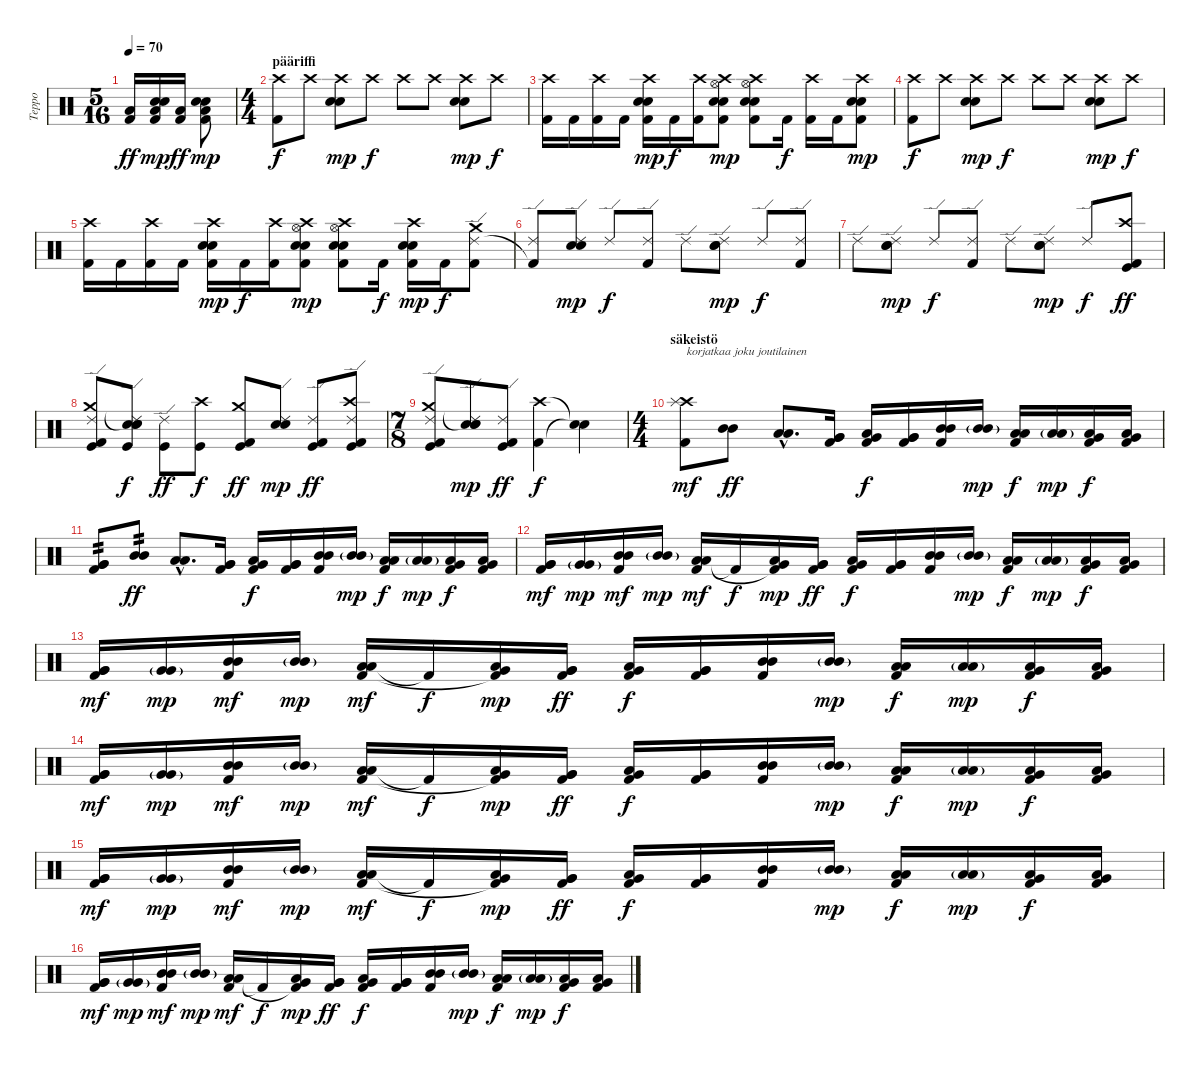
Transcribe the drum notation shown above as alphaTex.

\track ("Teppo" "Teppo") {instrument percussion}
\staff {score}
\articulation defaults
\ts (5 16)
\tempo 70
\clef neutral
\ks c
("Low Floor Tom (hit)" "Kick (hit) 2").16{dy ff} ("Low Floor Tom (hit)" "Snare (hit) 2" "Electric Snare (hit)" "Kick (hit) 2").16{dy mp} ("Low Floor Tom (hit)" "Kick (hit) 2").16{dy ff} ("Low Floor Tom (hit)" "Snare (hit) 2" "Electric Snare (hit)" "Kick (hit) 2").8{dy mp} |
\ts (4 4)
\section ("" "pääriffi")
("Crash high (hit)" "Kick (hit) 2").8{dy f} "Crash high (hit)".8 ("Crash high (hit)" "Snare (hit) 2" "Electric Snare (hit)").8{dy mp} "Crash high (hit)".8{dy f} "Crash high (hit)".8 "Crash high (hit)".8 ("Crash high (hit)" "Snare (hit) 2" "Electric Snare (hit)").8{dy mp} "Crash high (hit)".8{dy f} |
("Crash high (hit)" "Kick (hit) 2").16 "Kick (hit) 2".16 ("Crash high (hit)" "Kick (hit) 2").16 "Kick (hit) 2".16 ("Crash high (hit)" "Snare (hit) 2" "Electric Snare (hit)" "Kick (hit) 2").16{dy mp} "Kick (hit) 2".16{dy f} ("Crash high (hit)" "Kick (hit) 2").16 ("Hi-Hat (open)" "Crash high (hit)" "Snare (hit) 2" "Electric Snare (hit)" "Kick (hit) 2").8{dy mp} ("Hi-Hat (open)" "Crash high (hit)" "Snare (hit) 2" "Electric Snare (hit)" "Kick (hit) 2").8 "Kick (hit) 2".16{dy f} ("Crash high (hit)" "Kick (hit) 2").16 "Kick (hit) 2".16 ("Crash high (hit)" "Snare (hit) 2" "Electric Snare (hit)" "Kick (hit) 2").8{dy mp} |
("Crash high (hit)" "Kick (hit) 2").8{dy f} "Crash high (hit)".8 ("Crash high (hit)" "Snare (hit) 2" "Electric Snare (hit)").8{dy mp} "Crash high (hit)".8{dy f} "Crash high (hit)".8 "Crash high (hit)".8 ("Crash high (hit)" "Snare (hit) 2" "Electric Snare (hit)").8{dy mp} "Crash high (hit)".8{dy f} |
("Crash high (hit)" "Kick (hit) 2").16 "Kick (hit) 2".16 ("Crash high (hit)" "Kick (hit) 2").16 "Kick (hit) 2".16 ("Crash high (hit)" "Snare (hit) 2" "Electric Snare (hit)" "Kick (hit) 2").16{dy mp} "Kick (hit) 2".16{dy f} ("Crash high (hit)" "Kick (hit) 2").16 ("Hi-Hat (open)" "Crash high (hit)" "Snare (hit) 2" "Electric Snare (hit)" "Kick (hit) 2").8{dy mp} ("Hi-Hat (open)" "Crash high (hit)" "Snare (hit) 2" "Electric Snare (hit)" "Kick (hit) 2").8 "Kick (hit) 2".16{dy f} ("Crash high (hit)" "Snare (hit) 2" "Electric Snare (hit)" "Kick (hit) 2").16{dy mp} "Kick (hit) 2".16{dy f} ("Crash medium (hit)" "Ride (edge) 2" "Kick (hit) 2").8 |
("Ride (edge) 2" "Kick (hit) 2"{t}).8 ("Ride (edge) 2" "Snare (hit) 2" "Electric Snare (hit)").8{dy mp} "Ride (edge) 2".8{dy f} ("Ride (edge) 2" "Kick (hit) 2").8 "Ride (edge) 2".8 ("Ride (edge) 2" "Snare (hit) 2" "Electric Snare (hit)").8{dy mp} "Ride (edge) 2".8{dy f} ("Ride (edge) 2" "Kick (hit) 2").8 |
"Ride (edge) 2".8 ("Ride (edge) 2" "Snare (hit) 2" "Electric Snare (hit)").8{dy mp} "Ride (edge) 2".8{dy f} ("Ride (edge) 2" "Kick (hit) 2").8 "Ride (edge) 2".8 ("Ride (edge) 2" "Snare (hit) 2" "Electric Snare (hit)").8{dy mp} "Ride (edge) 2".8{dy f} ("Crash high (hit)" "Kick (hit) 2" "Kick (hit)").8{dy ff} |
("Ride (edge) 2" "Crash medium (hit)" "Kick (hit) 2" "Kick (hit)").8 ("Ride (edge) 2" "Snare (hit)"{t} "Snare (hit) 2" "Electric Snare (hit)" "Kick (hit)").8{dy f} ("Ride (edge) 2" "Kick (hit)").8{dy ff} ("Crash high (hit)" "Kick (hit)").8{dy f} ("Crash medium (hit)" "Kick (hit) 2" "Kick (hit)").8{dy ff} ("Ride (edge) 2" "Snare (hit) 2" "Electric Snare (hit)").8{dy mp} ("Ride (edge) 2" "Kick (hit) 2" "Kick (hit)").8{dy ff} ("Crash high (hit)" "Ride (edge) 2" "Kick (hit) 2" "Kick (hit)").8 |
\ts (7 8)
("Ride (edge) 2" "Crash medium (hit)" "Kick (hit) 2" "Kick (hit)").8 ("Ride (edge) 2" "Snare (hit)"{t} "Snare (hit) 2" "Electric Snare (hit)").8{dy mp} ("Ride (edge) 2" "Kick (hit) 2" "Kick (hit)").8{dy ff} ("Crash high (hit)" "Kick (hit) 2").4{dy f} ("Snare (hit)"{t} "Snare (hit)"{t}).4 |
\ts (4 4)
\section ("" "säkeistö")
("Crash high (hit)" "Splash (hit)" "Kick (hit) 2").8{txt "korjatkaa joku joutilainen" dy mf} ("Mid Tom (hit)" "Mid Tom (hit)").8{dy ff} ("Low Tom (hit)"{hac} "Low Tom (hit)"{hac}).8{d} ("Very Low Tom (hit)" "Very Low Tom (hit)" "Kick (hit) 2").16 ("Low Tom (hit)" "Very Low Tom (hit)" "Kick (hit) 2").16{dy f} ("Very Low Tom (hit)" "Very Low Tom (hit)" "Kick (hit) 2").16 ("Mid Tom (hit)" "Mid Tom (hit)" "Kick (hit) 2").16 ("Mid Tom (hit)"{g} "Mid Tom (hit)"{g}).16{dy mp} ("Low Tom (hit)" "Low Tom (hit)" "Kick (hit) 2").16{dy f} ("Low Tom (hit)"{g} "Low Tom (hit)"{g}).16{dy mp} ("Very Low Tom (hit)" "Low Tom (hit)" "Kick (hit) 2").16{dy f} ("Low Floor Tom (hit)" "Very Low Tom (hit)" "Kick (hit) 2").16 |
("Very Low Tom (hit)" "Very Low Tom (hit)" "Kick (hit) 2").8{tp 2} ("Mid Tom (hit)" "Mid Tom (hit)").8{tp 2 dy ff} ("Low Tom (hit)"{hac} "Low Tom (hit)"{hac}).8{d} ("Very Low Tom (hit)" "Very Low Tom (hit)" "Kick (hit) 2").16 ("Low Tom (hit)" "Very Low Tom (hit)" "Kick (hit) 2").16{dy f} ("Very Low Tom (hit)" "Very Low Tom (hit)" "Kick (hit) 2").16 ("Mid Tom (hit)" "Mid Tom (hit)" "Kick (hit) 2").16 ("Mid Tom (hit)"{g} "Mid Tom (hit)"{g}).16{dy mp} ("Low Tom (hit)" "Low Tom (hit)" "Kick (hit) 2").16{dy f} ("Low Tom (hit)"{g} "Low Tom (hit)"{g}).16{dy mp} ("Very Low Tom (hit)" "Low Tom (hit)" "Kick (hit) 2").16{dy f} ("Low Floor Tom (hit)" "Very Low Tom (hit)" "Kick (hit) 2").16 |
("Very Low Tom (hit)" "Very Low Tom (hit)" "Kick (hit) 2").16{dy mf} ("Very Low Tom (hit)"{g} "Very Low Tom (hit)"{g}).16{dy mp} ("Mid Tom (hit)" "Mid Tom (hit)" "Kick (hit) 2").16{dy mf} ("Mid Tom (hit)"{g} "Mid Tom (hit)"{g}).16{dy mp} ("Low Tom (hit)" "Low Tom (hit)" "Kick (hit) 2").16{dy mf} "Kick (hit) 2"{t}.16{dy f} ("Very Low Tom (hit)" "Low Tom (hit)" "Kick (hit) 2"{t}).16{dy mp} ("Very Low Tom (hit)" "Very Low Tom (hit)" "Kick (hit) 2").16{dy ff} ("Low Tom (hit)" "Very Low Tom (hit)" "Kick (hit) 2").16{dy f} ("Very Low Tom (hit)" "Very Low Tom (hit)" "Kick (hit) 2").16 ("Mid Tom (hit)" "Mid Tom (hit)" "Kick (hit) 2").16 ("Mid Tom (hit)"{g} "Mid Tom (hit)"{g}).16{dy mp} ("Low Tom (hit)" "Low Tom (hit)" "Kick (hit) 2").16{dy f} ("Low Tom (hit)"{g} "Low Tom (hit)"{g}).16{dy mp} ("Very Low Tom (hit)" "Low Tom (hit)" "Kick (hit) 2").16{dy f} ("Low Floor Tom (hit)" "Very Low Tom (hit)" "Kick (hit) 2").16 |
("Very Low Tom (hit)" "Very Low Tom (hit)" "Kick (hit) 2").16{dy mf} ("Very Low Tom (hit)"{g} "Very Low Tom (hit)"{g}).16{txt " " dy mp} ("Mid Tom (hit)" "Mid Tom (hit)" "Kick (hit) 2").16{dy mf} ("Mid Tom (hit)"{g} "Mid Tom (hit)"{g}).16{dy mp} ("Low Tom (hit)" "Low Tom (hit)" "Kick (hit) 2").16{dy mf} "Kick (hit) 2"{t}.16{dy f} ("Very Low Tom (hit)" "Low Tom (hit)" "Kick (hit) 2"{t}).16{dy mp} ("Very Low Tom (hit)" "Very Low Tom (hit)" "Kick (hit) 2").16{dy ff} ("Low Tom (hit)" "Very Low Tom (hit)" "Kick (hit) 2").16{dy f} ("Very Low Tom (hit)" "Very Low Tom (hit)" "Kick (hit) 2").16 ("Mid Tom (hit)" "Mid Tom (hit)" "Kick (hit) 2").16 ("Mid Tom (hit)"{g} "Mid Tom (hit)"{g}).16{dy mp} ("Low Tom (hit)" "Low Tom (hit)" "Kick (hit) 2").16{dy f} ("Low Tom (hit)"{g} "Low Tom (hit)"{g}).16{dy mp} ("Very Low Tom (hit)" "Low Tom (hit)" "Kick (hit) 2").16{dy f} ("Low Floor Tom (hit)" "Very Low Tom (hit)" "Kick (hit) 2").16 |
("Very Low Tom (hit)" "Very Low Tom (hit)" "Kick (hit) 2").16{dy mf} ("Very Low Tom (hit)"{g} "Very Low Tom (hit)"{g}).16{dy mp} ("Mid Tom (hit)" "Mid Tom (hit)" "Kick (hit) 2").16{dy mf} ("Mid Tom (hit)"{g} "Mid Tom (hit)"{g}).16{dy mp} ("Low Tom (hit)" "Low Tom (hit)" "Kick (hit) 2").16{dy mf} "Kick (hit) 2"{t}.16{dy f} ("Very Low Tom (hit)" "Low Tom (hit)" "Kick (hit) 2"{t}).16{dy mp} ("Very Low Tom (hit)" "Very Low Tom (hit)" "Kick (hit) 2").16{dy ff} ("Low Tom (hit)" "Very Low Tom (hit)" "Kick (hit) 2").16{dy f} ("Very Low Tom (hit)" "Very Low Tom (hit)" "Kick (hit) 2").16 ("Mid Tom (hit)" "Mid Tom (hit)" "Kick (hit) 2").16 ("Mid Tom (hit)"{g} "Mid Tom (hit)"{g}).16{dy mp} ("Low Tom (hit)" "Low Tom (hit)" "Kick (hit) 2").16{dy f} ("Low Tom (hit)"{g} "Low Tom (hit)"{g}).16{dy mp} ("Very Low Tom (hit)" "Low Tom (hit)" "Kick (hit) 2").16{dy f} ("Low Floor Tom (hit)" "Very Low Tom (hit)" "Kick (hit) 2").16 |
("Very Low Tom (hit)" "Very Low Tom (hit)" "Kick (hit) 2").16{dy mf} ("Very Low Tom (hit)"{g} "Very Low Tom (hit)"{g}).16{dy mp} ("Mid Tom (hit)" "Mid Tom (hit)" "Kick (hit) 2").16{dy mf} ("Mid Tom (hit)"{g} "Mid Tom (hit)"{g}).16{dy mp} ("Low Tom (hit)" "Low Tom (hit)" "Kick (hit) 2").16{dy mf} "Kick (hit) 2"{t}.16{dy f} ("Very Low Tom (hit)" "Low Tom (hit)" "Kick (hit) 2"{t}).16{dy mp} ("Very Low Tom (hit)" "Very Low Tom (hit)" "Kick (hit) 2").16{dy ff} ("Low Tom (hit)" "Very Low Tom (hit)" "Kick (hit) 2").16{dy f} ("Very Low Tom (hit)" "Very Low Tom (hit)" "Kick (hit) 2").16 ("Mid Tom (hit)" "Mid Tom (hit)" "Kick (hit) 2").16 ("Mid Tom (hit)"{g} "Mid Tom (hit)"{g}).16{dy mp} ("Low Tom (hit)" "Low Tom (hit)" "Kick (hit) 2").16{dy f} ("Low Tom (hit)"{g} "Low Tom (hit)"{g}).16{dy mp} ("Very Low Tom (hit)" "Low Tom (hit)" "Kick (hit) 2").16{dy f} ("Low Floor Tom (hit)" "Very Low Tom (hit)" "Kick (hit) 2").16 |
("Very Low Tom (hit)" "Very Low Tom (hit)" "Kick (hit) 2").16{dy mf} ("Very Low Tom (hit)"{g} "Very Low Tom (hit)"{g}).16{dy mp} ("Mid Tom (hit)" "Mid Tom (hit)" "Kick (hit) 2").16{dy mf} ("Mid Tom (hit)"{g} "Mid Tom (hit)"{g}).16{dy mp} ("Low Tom (hit)" "Low Tom (hit)" "Kick (hit) 2").16{dy mf} "Kick (hit) 2"{t}.16{dy f} ("Very Low Tom (hit)" "Low Tom (hit)" "Kick (hit) 2"{t}).16{dy mp} ("Very Low Tom (hit)" "Very Low Tom (hit)" "Kick (hit) 2").16{dy ff} ("Low Tom (hit)" "Very Low Tom (hit)" "Kick (hit) 2").16{dy f} ("Very Low Tom (hit)" "Very Low Tom (hit)" "Kick (hit) 2").16 ("Mid Tom (hit)" "Mid Tom (hit)" "Kick (hit) 2").16 ("Mid Tom (hit)"{g} "Mid Tom (hit)"{g}).16{dy mp} ("Low Tom (hit)" "Low Tom (hit)" "Kick (hit) 2").16{dy f} ("Low Tom (hit)"{g} "Low Tom (hit)"{g}).16{dy mp} ("Very Low Tom (hit)" "Low Tom (hit)" "Kick (hit) 2").16{dy f} ("Low Floor Tom (hit)" "Very Low Tom (hit)" "Kick (hit) 2").16
